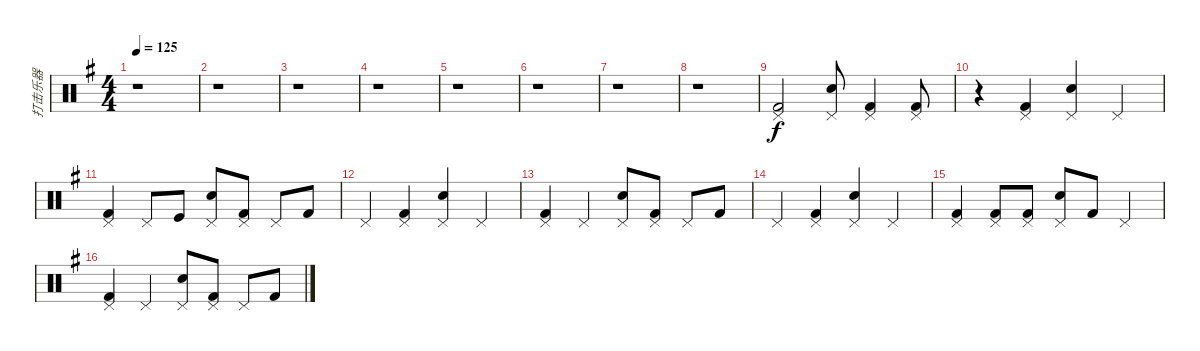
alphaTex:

\track ("打击乐器" "打击乐器") {instrument percussion}
\staff {score}
\articulation defaults
\ts (4 4)
\tempo 125
\clef neutral
\ks g
r.1{dy f} |
r.1 |
r.1 |
r.1 |
r.1 |
r.1 |
r.1 |
r.1 |
("Pedal Hi-Hat (hit)" "Kick (hit) 2").2 ("Pedal Hi-Hat (hit)" "Snare (hit) 2").8 ("Pedal Hi-Hat (hit)" "Kick (hit) 2").4 ("Pedal Hi-Hat (hit)" "Kick (hit) 2").8 |
r.4 ("Pedal Hi-Hat (hit)" "Kick (hit) 2").4 ("Pedal Hi-Hat (hit)" "Snare (hit) 2").4 "Pedal Hi-Hat (hit)".4 |
("Pedal Hi-Hat (hit)" "Kick (hit) 2").4 "Pedal Hi-Hat (hit)".8 "Kick (hit)".8 ("Pedal Hi-Hat (hit)" "Snare (hit) 2").8 ("Pedal Hi-Hat (hit)" "Kick (hit) 2").8 "Pedal Hi-Hat (hit)".8 "Kick (hit) 2".8 |
"Pedal Hi-Hat (hit)".4 ("Pedal Hi-Hat (hit)" "Kick (hit) 2").4 ("Pedal Hi-Hat (hit)" "Snare (hit) 2").4 "Pedal Hi-Hat (hit)".4 |
("Pedal Hi-Hat (hit)" "Kick (hit) 2").4 "Pedal Hi-Hat (hit)".4 ("Pedal Hi-Hat (hit)" "Snare (hit) 2").8 ("Pedal Hi-Hat (hit)" "Kick (hit) 2").8 "Pedal Hi-Hat (hit)".8 "Kick (hit) 2".8 |
"Pedal Hi-Hat (hit)".4 ("Pedal Hi-Hat (hit)" "Kick (hit) 2").4 ("Pedal Hi-Hat (hit)" "Snare (hit) 2").4 "Pedal Hi-Hat (hit)".4 |
("Pedal Hi-Hat (hit)" "Kick (hit) 2").4 ("Pedal Hi-Hat (hit)" "Kick (hit) 2").8 ("Pedal Hi-Hat (hit)" "Kick (hit) 2").8 ("Pedal Hi-Hat (hit)" "Snare (hit) 2").8 "Kick (hit) 2".8 "Pedal Hi-Hat (hit)".4 |
("Pedal Hi-Hat (hit)" "Kick (hit) 2").4 "Pedal Hi-Hat (hit)".4 ("Pedal Hi-Hat (hit)" "Snare (hit) 2").8 ("Pedal Hi-Hat (hit)" "Kick (hit) 2").8 "Pedal Hi-Hat (hit)".8 "Kick (hit) 2".8
